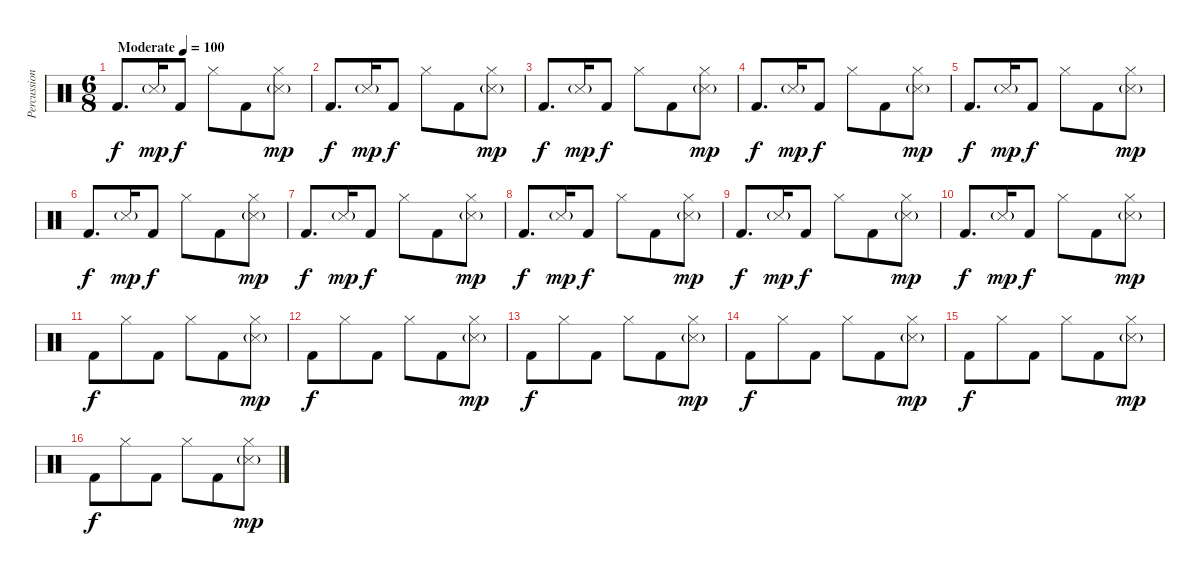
\track ("Percussion" "Percussion") {instrument percussion}
\staff {score}
\articulation defaults
\ts (6 8)
\tempo (100 "Moderate")
\clef neutral
\ks c "Kick (hit) 2".8{d dy f} "Snare (side stick) 3"{g}.16{dy mp} "Kick (hit) 2".8{dy f} "Hi-Hat (closed)".8 "Kick (hit) 2".8
("Hi-Hat (closed)" "Snare (side stick) 3"{g}).8{dy mp} |
"Kick (hit) 2".8{d dy f} "Snare (side stick) 3"{g}.16{dy mp} "Kick (hit) 2".8{dy f} "Hi-Hat (closed)".8 "Kick (hit) 2".8 ("Hi-Hat (closed)" "Snare (side stick) 3"{g}).8{dy mp} |
"Kick (hit) 2".8{d dy f} "Snare (side stick) 3"{g}.16{dy mp} "Kick (hit) 2".8{dy f} "Hi-Hat (closed)".8 "Kick (hit) 2".8 ("Hi-Hat (closed)" "Snare (side stick) 3"{g}).8{dy mp} |
"Kick (hit) 2".8{d dy f} "Snare (side stick) 3"{g}.16{dy mp} "Kick (hit) 2".8{dy f} "Hi-Hat (closed)".8 "Kick (hit) 2".8 ("Hi-Hat (closed)" "Snare (side stick) 3"{g}).8{dy mp} |
"Kick (hit) 2".8{d dy f} "Snare (side stick) 3"{g}.16{dy mp} "Kick (hit) 2".8{dy f} "Hi-Hat (closed)".8 "Kick (hit) 2".8 ("Hi-Hat (closed)" "Snare (side stick) 3"{g}).8{dy mp} |
"Kick (hit) 2".8{d dy f} "Snare (side stick) 3"{g}.16{dy mp} "Kick (hit) 2".8{dy f} "Hi-Hat (closed)".8 "Kick (hit) 2".8 ("Hi-Hat (closed)" "Snare (side stick) 3"{g}).8{dy mp} |
"Kick (hit) 2".8{d dy f} "Snare (side stick) 3"{g}.16{dy mp} "Kick (hit) 2".8{dy f} "Hi-Hat (closed)".8 "Kick (hit) 2".8 ("Hi-Hat (closed)" "Snare (side stick) 3"{g}).8{dy mp} |
"Kick (hit) 2".8{d dy f} "Snare (side stick) 3"{g}.16{dy mp} "Kick (hit) 2".8{dy f} "Hi-Hat (closed)".8 "Kick (hit) 2".8 ("Hi-Hat (closed)" "Snare (side stick) 3"{g}).8{dy mp} |
"Kick (hit) 2".8{d dy f} "Snare (side stick) 3"{g}.16{dy mp} "Kick (hit) 2".8{dy f} "Hi-Hat (closed)".8 "Kick (hit) 2".8 ("Hi-Hat (closed)" "Snare (side stick) 3"{g}).8{dy mp} |
"Kick (hit) 2".8{d dy f} "Snare (side stick) 3"{g}.16{dy mp} "Kick (hit) 2".8{dy f} "Hi-Hat (closed)".8 "Kick (hit) 2".8 ("Hi-Hat (closed)" "Snare (side stick) 3"{g}).8{dy mp} |
"Kick (hit) 2".8{dy f} "Hi-Hat (closed)".8 "Kick (hit) 2".8 "Hi-Hat (closed)".8 "Kick (hit) 2".8 ("Hi-Hat (closed)" "Snare (side stick) 3"{g}).8{dy mp} |
"Kick (hit) 2".8{dy f} "Hi-Hat (closed)".8 "Kick (hit) 2".8 "Hi-Hat (closed)".8 "Kick (hit) 2".8 ("Hi-Hat (closed)" "Snare (side stick) 3"{g}).8{dy mp} |
"Kick (hit) 2".8{dy f} "Hi-Hat (closed)".8 "Kick (hit) 2".8 "Hi-Hat (closed)".8 "Kick (hit) 2".8 ("Hi-Hat (closed)" "Snare (side stick) 3"{g}).8{dy mp} |
"Kick (hit) 2".8{dy f} "Hi-Hat (closed)".8 "Kick (hit) 2".8 "Hi-Hat (closed)".8 "Kick (hit) 2".8 ("Hi-Hat (closed)" "Snare (side stick) 3"{g}).8{dy mp} |
"Kick (hit) 2".8{dy f} "Hi-Hat (closed)".8 "Kick (hit) 2".8 "Hi-Hat (closed)".8 "Kick (hit) 2".8 ("Hi-Hat (closed)" "Snare (side stick) 3"{g}).8{dy mp} |
"Kick (hit) 2".8{dy f} "Hi-Hat (closed)".8 "Kick (hit) 2".8 "Hi-Hat (closed)".8 "Kick (hit) 2".8 ("Hi-Hat (closed)" "Snare (side stick) 3"{g}).8{dy mp}
